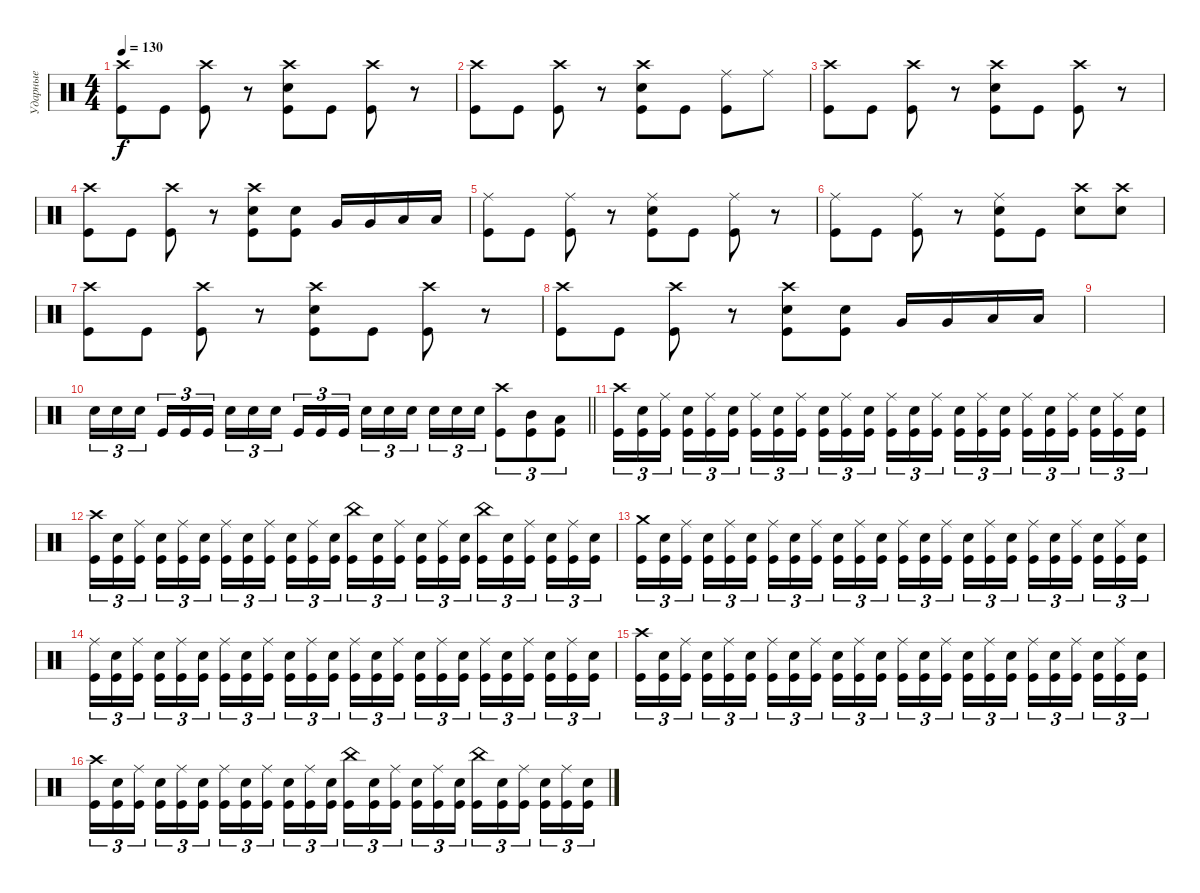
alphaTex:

\track ("Ударные" "Ударные") {instrument percussion}
\staff {score}
\articulation defaults
\ts (4 4)
\section ("" " ")
\tempo 130
\clef neutral
\ks c
("Crash high (hit)" "Kick (hit)").8{dy f} "Kick (hit)".8 ("Crash high (hit)" "Kick (hit)").8 r.8 ("Crash high (hit)" "Electric Snare (hit)" "Kick (hit)").8 "Kick (hit)".8 ("Crash high (hit)" "Kick (hit)").8 r.8 |
("Crash high (hit)" "Kick (hit)").8 "Kick (hit)".8 ("Crash high (hit)" "Kick (hit)").8 r.8 ("Crash high (hit)" "Electric Snare (hit)" "Kick (hit)").8 "Kick (hit)".8 ("Ride (middle)" "Kick (hit)").8 "Ride (middle)".8 |
("Crash high (hit)" "Kick (hit)").8 "Kick (hit)".8 ("Crash high (hit)" "Kick (hit)").8 r.8 ("Crash high (hit)" "Electric Snare (hit)" "Kick (hit)").8 "Kick (hit)".8 ("Crash high (hit)" "Kick (hit)").8 r.8 |
("Crash high (hit)" "Kick (hit)").8 "Kick (hit)".8 ("Crash high (hit)" "Kick (hit)").8 r.8 ("Crash high (hit)" "Electric Snare (hit)" "Kick (hit)").8 ("Electric Snare (hit)" "Kick (hit)").8 "Very Low Tom (hit)".16 "Very Low Tom (hit)".16 "Low Floor Tom (hit)".16 "Low Floor Tom (hit)".16 |
("Ride (middle)" "Kick (hit)").8 "Kick (hit)".8 ("Ride (middle)" "Kick (hit)").8 r.8 ("Ride (middle)" "Electric Snare (hit)" "Kick (hit)").8 "Kick (hit)".8 ("Ride (middle)" "Kick (hit)").8 r.8 |
("Ride (middle)" "Kick (hit)").8 "Kick (hit)".8 ("Ride (middle)" "Kick (hit)").8 r.8 ("Ride (middle)" "Electric Snare (hit)" "Kick (hit)").8 "Kick (hit)".8 ("Crash high (hit)" "Electric Snare (hit)").8 ("Crash high (hit)" "Electric Snare (hit)").8 |
("Crash high (hit)" "Kick (hit)").8 "Kick (hit)".8 ("Crash high (hit)" "Kick (hit)").8 r.8 ("Crash high (hit)" "Electric Snare (hit)" "Kick (hit)").8 "Kick (hit)".8 ("Crash high (hit)" "Kick (hit)").8 r.8 |
("Crash high (hit)" "Kick (hit)").8 "Kick (hit)".8 ("Crash high (hit)" "Kick (hit)").8 r.8 ("Crash high (hit)" "Electric Snare (hit)" "Kick (hit)").8 ("Electric Snare (hit)" "Kick (hit)").8 "Very Low Tom (hit)".16 "Very Low Tom (hit)".16 "Low Floor Tom (hit)".16 "Low Floor Tom (hit)".16 |
|
\barLineRight lightlight "Electric Snare (hit)".16{tu (3 2)} "Electric Snare (hit)".16{tu (3 2)} "Electric Snare (hit)".16{tu (3 2) beam splitsecondary} "Kick (hit)".16{tu (3 2)} "Kick (hit)".16{tu (3 2)} "Kick (hit)".16{tu (3 2)} "Electric Snare (hit)".16{tu (3 2)} "Electric Snare (hit)".16{tu (3 2)} "Electric Snare (hit)".16{tu (3 2) beam splitsecondary} "Kick (hit)".16{tu (3 2)} "Kick (hit)".16{tu (3 2)} "Kick (hit)".16{tu (3 2)} "Electric Snare (hit)".16{tu (3 2)} "Electric Snare (hit)".16{tu (3 2)} "Electric Snare (hit)".16{tu (3 2) beam splitsecondary} "Electric Snare (hit)".16{tu (3 2)} "Electric Snare (hit)".16{tu (3 2)} "Electric Snare (hit)".16{tu (3 2)}
("Kick (hit)" "Crash high (hit)").8{tu (3 2)} ("Mid Tom (hit)" "Kick (hit)").8{tu (3 2)} ("Low Tom (hit)" "Kick (hit)").8{tu (3 2)} |
\section ("" " ")
("Crash high (hit)" "Kick (hit)").16{tu (3 2)} ("Electric Snare (hit)" "Kick (hit)").16{tu (3 2)} ("Ride (middle)" "Kick (hit)").16{tu (3 2) beam splitsecondary} ("Electric Snare (hit)" "Kick (hit)").16{tu (3 2)} ("Ride (middle)" "Kick (hit)").16{tu (3 2)} ("Electric Snare (hit)" "Kick (hit)").16{tu (3 2)} ("Ride (middle)" "Kick (hit)").16{tu (3 2)} ("Electric Snare (hit)" "Kick (hit)").16{tu (3 2)} ("Ride (middle)" "Kick (hit)").16{tu (3 2) beam splitsecondary} ("Electric Snare (hit)" "Kick (hit)").16{tu (3 2)} ("Ride (middle)" "Kick (hit)").16{tu (3 2)} ("Electric Snare (hit)" "Kick (hit)").16{tu (3 2)} ("Ride (middle)" "Kick (hit)").16{tu (3 2)} ("Electric Snare (hit)" "Kick (hit)").16{tu (3 2)} ("Ride (middle)" "Kick (hit)").16{tu (3 2) beam splitsecondary} ("Electric Snare (hit)" "Kick (hit)").16{tu (3 2)} ("Ride (middle)" "Kick (hit)").16{tu (3 2)} ("Electric Snare (hit)" "Kick (hit)").16{tu (3 2)} ("Ride (middle)" "Kick (hit)").16{tu (3 2)} ("Electric Snare (hit)" "Kick (hit)").16{tu (3 2)} ("Ride (middle)" "Kick (hit)").16{tu (3 2) beam splitsecondary} ("Electric Snare (hit)" "Kick (hit)").16{tu (3 2)} ("Ride (middle)" "Kick (hit)").16{tu (3 2)} ("Electric Snare (hit)" "Kick (hit)").16{tu (3 2)} |
("Crash high (hit)" "Kick (hit)").16{tu (3 2)} ("Electric Snare (hit)" "Kick (hit)").16{tu (3 2)} ("Ride (middle)" "Kick (hit)").16{tu (3 2) beam splitsecondary} ("Electric Snare (hit)" "Kick (hit)").16{tu (3 2)} ("Ride (middle)" "Kick (hit)").16{tu (3 2)} ("Electric Snare (hit)" "Kick (hit)").16{tu (3 2)} ("Ride (middle)" "Kick (hit)").16{tu (3 2)} ("Electric Snare (hit)" "Kick (hit)").16{tu (3 2)} ("Ride (middle)" "Kick (hit)").16{tu (3 2) beam splitsecondary} ("Electric Snare (hit)" "Kick (hit)").16{tu (3 2)} ("Ride (middle)" "Kick (hit)").16{tu (3 2)} ("Electric Snare (hit)" "Kick (hit)").16{tu (3 2)} ("China (hit)" "Kick (hit)").16{tu (3 2)} ("Electric Snare (hit)" "Kick (hit)").16{tu (3 2)} ("Ride (middle)" "Kick (hit)").16{tu (3 2) beam splitsecondary} ("Electric Snare (hit)" "Kick (hit)").16{tu (3 2)} ("Ride (middle)" "Kick (hit)").16{tu (3 2)} ("Electric Snare (hit)" "Kick (hit)").16{tu (3 2)} ("China (hit)" "Kick (hit)").16{tu (3 2)} ("Electric Snare (hit)" "Kick (hit)").16{tu (3 2)} ("Ride (middle)" "Kick (hit)").16{tu (3 2) beam splitsecondary} ("Electric Snare (hit)" "Kick (hit)").16{tu (3 2)} ("Ride (middle)" "Kick (hit)").16{tu (3 2)} ("Electric Snare (hit)" "Kick (hit)").16{tu (3 2)} |
("Crash medium (hit)" "Kick (hit)").16{tu (3 2)} ("Electric Snare (hit)" "Kick (hit)").16{tu (3 2)} ("Ride (middle)" "Kick (hit)").16{tu (3 2) beam splitsecondary} ("Electric Snare (hit)" "Kick (hit)").16{tu (3 2)} ("Ride (middle)" "Kick (hit)").16{tu (3 2)} ("Electric Snare (hit)" "Kick (hit)").16{tu (3 2)} ("Ride (middle)" "Kick (hit)").16{tu (3 2)} ("Electric Snare (hit)" "Kick (hit)").16{tu (3 2)} ("Ride (middle)" "Kick (hit)").16{tu (3 2) beam splitsecondary} ("Electric Snare (hit)" "Kick (hit)").16{tu (3 2)} ("Ride (middle)" "Kick (hit)").16{tu (3 2)} ("Electric Snare (hit)" "Kick (hit)").16{tu (3 2)} ("Ride (middle)" "Kick (hit)").16{tu (3 2)} ("Electric Snare (hit)" "Kick (hit)").16{tu (3 2)} ("Ride (middle)" "Kick (hit)").16{tu (3 2) beam splitsecondary} ("Electric Snare (hit)" "Kick (hit)").16{tu (3 2)} ("Ride (middle)" "Kick (hit)").16{tu (3 2)} ("Electric Snare (hit)" "Kick (hit)").16{tu (3 2)} ("Ride (middle)" "Kick (hit)").16{tu (3 2)} ("Electric Snare (hit)" "Kick (hit)").16{tu (3 2)} ("Ride (middle)" "Kick (hit)").16{tu (3 2) beam splitsecondary} ("Electric Snare (hit)" "Kick (hit)").16{tu (3 2)} ("Ride (middle)" "Kick (hit)").16{tu (3 2)} ("Electric Snare (hit)" "Kick (hit)").16{tu (3 2)} |
("Ride (middle)" "Kick (hit)").16{tu (3 2)} ("Electric Snare (hit)" "Kick (hit)").16{tu (3 2)} ("Ride (middle)" "Kick (hit)").16{tu (3 2) beam splitsecondary} ("Electric Snare (hit)" "Kick (hit)").16{tu (3 2)} ("Ride (middle)" "Kick (hit)").16{tu (3 2)} ("Electric Snare (hit)" "Kick (hit)").16{tu (3 2)} ("Ride (middle)" "Kick (hit)").16{tu (3 2)} ("Electric Snare (hit)" "Kick (hit)").16{tu (3 2)} ("Ride (middle)" "Kick (hit)").16{tu (3 2) beam splitsecondary} ("Electric Snare (hit)" "Kick (hit)").16{tu (3 2)} ("Ride (middle)" "Kick (hit)").16{tu (3 2)} ("Electric Snare (hit)" "Kick (hit)").16{tu (3 2)} ("Ride (middle)" "Kick (hit)").16{tu (3 2)} ("Electric Snare (hit)" "Kick (hit)").16{tu (3 2)} ("Ride (middle)" "Kick (hit)").16{tu (3 2) beam splitsecondary} ("Electric Snare (hit)" "Kick (hit)").16{tu (3 2)} ("Ride (middle)" "Kick (hit)").16{tu (3 2)} ("Electric Snare (hit)" "Kick (hit)").16{tu (3 2)} ("Ride (middle)" "Kick (hit)").16{tu (3 2)} ("Electric Snare (hit)" "Kick (hit)").16{tu (3 2)} ("Ride (middle)" "Kick (hit)").16{tu (3 2) beam splitsecondary} ("Electric Snare (hit)" "Kick (hit)").16{tu (3 2)} ("Ride (middle)" "Kick (hit)").16{tu (3 2)} ("Electric Snare (hit)" "Kick (hit)").16{tu (3 2)} |
("Crash high (hit)" "Kick (hit)").16{tu (3 2)} ("Electric Snare (hit)" "Kick (hit)").16{tu (3 2)} ("Ride (middle)" "Kick (hit)").16{tu (3 2) beam splitsecondary} ("Electric Snare (hit)" "Kick (hit)").16{tu (3 2)} ("Ride (middle)" "Kick (hit)").16{tu (3 2)} ("Electric Snare (hit)" "Kick (hit)").16{tu (3 2)} ("Ride (middle)" "Kick (hit)").16{tu (3 2)} ("Electric Snare (hit)" "Kick (hit)").16{tu (3 2)} ("Ride (middle)" "Kick (hit)").16{tu (3 2) beam splitsecondary} ("Electric Snare (hit)" "Kick (hit)").16{tu (3 2)} ("Ride (middle)" "Kick (hit)").16{tu (3 2)} ("Electric Snare (hit)" "Kick (hit)").16{tu (3 2)} ("Ride (middle)" "Kick (hit)").16{tu (3 2)} ("Electric Snare (hit)" "Kick (hit)").16{tu (3 2)} ("Ride (middle)" "Kick (hit)").16{tu (3 2) beam splitsecondary} ("Electric Snare (hit)" "Kick (hit)").16{tu (3 2)} ("Ride (middle)" "Kick (hit)").16{tu (3 2)} ("Electric Snare (hit)" "Kick (hit)").16{tu (3 2)} ("Ride (middle)" "Kick (hit)").16{tu (3 2)} ("Electric Snare (hit)" "Kick (hit)").16{tu (3 2)} ("Ride (middle)" "Kick (hit)").16{tu (3 2) beam splitsecondary} ("Electric Snare (hit)" "Kick (hit)").16{tu (3 2)} ("Ride (middle)" "Kick (hit)").16{tu (3 2)} ("Electric Snare (hit)" "Kick (hit)").16{tu (3 2)} |
("Crash high (hit)" "Kick (hit)").16{tu (3 2)} ("Electric Snare (hit)" "Kick (hit)").16{tu (3 2)} ("Ride (middle)" "Kick (hit)").16{tu (3 2) beam splitsecondary} ("Electric Snare (hit)" "Kick (hit)").16{tu (3 2)} ("Ride (middle)" "Kick (hit)").16{tu (3 2)} ("Electric Snare (hit)" "Kick (hit)").16{tu (3 2)} ("Ride (middle)" "Kick (hit)").16{tu (3 2)} ("Electric Snare (hit)" "Kick (hit)").16{tu (3 2)} ("Ride (middle)" "Kick (hit)").16{tu (3 2) beam splitsecondary} ("Electric Snare (hit)" "Kick (hit)").16{tu (3 2)} ("Ride (middle)" "Kick (hit)").16{tu (3 2)} ("Electric Snare (hit)" "Kick (hit)").16{tu (3 2)} ("China (hit)" "Kick (hit)").16{tu (3 2)} ("Electric Snare (hit)" "Kick (hit)").16{tu (3 2)} ("Ride (middle)" "Kick (hit)").16{tu (3 2) beam splitsecondary} ("Electric Snare (hit)" "Kick (hit)").16{tu (3 2)} ("Ride (middle)" "Kick (hit)").16{tu (3 2)} ("Electric Snare (hit)" "Kick (hit)").16{tu (3 2)} ("China (hit)" "Kick (hit)").16{tu (3 2)} ("Electric Snare (hit)" "Kick (hit)").16{tu (3 2)} ("Ride (middle)" "Kick (hit)").16{tu (3 2) beam splitsecondary} ("Electric Snare (hit)" "Kick (hit)").16{tu (3 2)} ("Ride (middle)" "Kick (hit)").16{tu (3 2)} ("Electric Snare (hit)" "Kick (hit)").16{tu (3 2)}
